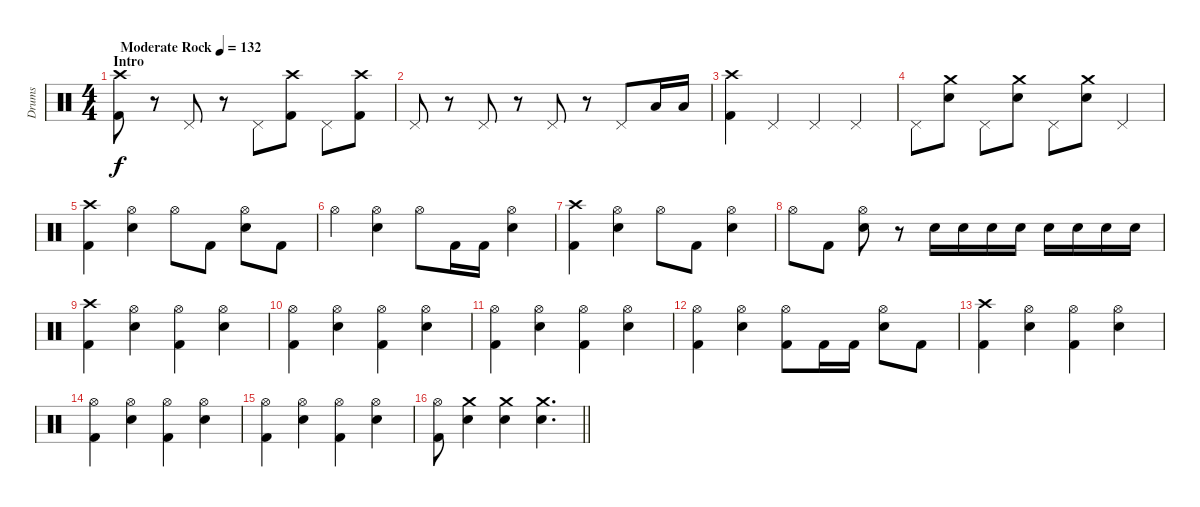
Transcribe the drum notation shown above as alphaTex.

\track ("Drums" "Drums") {instrument percussion}
\staff {score}
\articulation defaults
\ts (4 4)
\section ("" "Intro")
\tempo (132 "Moderate Rock")
\clef neutral
\ks c
("Crash high (hit)" "Kick (hit) 2").8{dy f} r.8 "Pedal Hi-Hat (hit)".8 r.8 "Pedal Hi-Hat (hit)".8 ("Crash high (hit)" "Kick (hit) 2").8 "Pedal Hi-Hat (hit)".8 ("Crash high (hit)" "Kick (hit) 2").8 |
"Pedal Hi-Hat (hit)".8 r.8 "Pedal Hi-Hat (hit)".8 r.8 "Pedal Hi-Hat (hit)".8 r.8 "Pedal Hi-Hat (hit)".8 "Low Tom (hit)".16 "Low Tom (hit)".16 |
("Crash high (hit)" "Kick (hit) 2").4 "Pedal Hi-Hat (hit)".4 "Pedal Hi-Hat (hit)".4 "Pedal Hi-Hat (hit)".4 |
"Pedal Hi-Hat (hit)".8 ("Crash medium (hit)" "Snare (hit) 2").8 "Pedal Hi-Hat (hit)".8 ("Crash medium (hit)" "Snare (hit) 2").8 "Pedal Hi-Hat (hit)".8 ("Crash medium (hit)" "Snare (hit) 2").8 "Pedal Hi-Hat (hit)".4 |
("Crash high (hit)" "Kick (hit) 2").4 ("Hi-Hat (open)" "Snare (hit) 2").4 "Hi-Hat (open)".8 "Kick (hit) 2".8 ("Hi-Hat (open)" "Snare (hit) 2").8 "Kick (hit) 2".8 |
"Hi-Hat (open)".4 ("Hi-Hat (open)" "Snare (hit) 2").4 "Hi-Hat (open)".8 "Kick (hit) 2".16 "Kick (hit) 2".16 ("Hi-Hat (open)" "Snare (hit) 2").4 |
("Crash high (hit)" "Kick (hit) 2").4 ("Hi-Hat (open)" "Snare (hit) 2").4 "Hi-Hat (open)".8 "Kick (hit) 2".8 ("Hi-Hat (open)" "Snare (hit) 2").4 |
"Hi-Hat (open)".8 "Kick (hit) 2".8 ("Hi-Hat (open)" "Snare (hit) 2").8 r.8 "Snare (hit) 2".16 "Snare (hit) 2".16 "Snare (hit) 2".16 "Snare (hit) 2".16 "Snare (hit) 2".16 "Snare (hit) 2".16 "Snare (hit) 2".16 "Snare (hit) 2".16 |
("Crash high (hit)" "Kick (hit) 2").4 ("Hi-Hat (open)" "Snare (hit) 2").4 ("Hi-Hat (open)" "Kick (hit) 2").4 ("Hi-Hat (open)" "Snare (hit) 2").4 |
("Hi-Hat (open)" "Kick (hit) 2").4 ("Hi-Hat (open)" "Snare (hit) 2").4 ("Hi-Hat (open)" "Kick (hit) 2").4 ("Hi-Hat (open)" "Snare (hit) 2").4 |
("Hi-Hat (open)" "Kick (hit) 2").4 ("Hi-Hat (open)" "Snare (hit) 2").4 ("Hi-Hat (open)" "Kick (hit) 2").4 ("Hi-Hat (open)" "Snare (hit) 2").4 |
("Hi-Hat (open)" "Kick (hit) 2").4 ("Hi-Hat (open)" "Snare (hit) 2").4 ("Hi-Hat (open)" "Kick (hit) 2").8 "Kick (hit) 2".16 "Kick (hit) 2".16 ("Hi-Hat (open)" "Snare (hit) 2").8 "Kick (hit) 2".8 |
("Crash high (hit)" "Kick (hit) 2").4 ("Hi-Hat (open)" "Snare (hit) 2").4 ("Hi-Hat (open)" "Kick (hit) 2").4 ("Hi-Hat (open)" "Snare (hit) 2").4 |
("Hi-Hat (open)" "Kick (hit) 2").4 ("Hi-Hat (open)" "Snare (hit) 2").4 ("Hi-Hat (open)" "Kick (hit) 2").4 ("Hi-Hat (open)" "Snare (hit) 2").4 |
("Hi-Hat (open)" "Kick (hit) 2").4 ("Hi-Hat (open)" "Snare (hit) 2").4 ("Hi-Hat (open)" "Kick (hit) 2").4 ("Hi-Hat (open)" "Snare (hit) 2").4 |
\barLineRight lightlight
("Hi-Hat (open)" "Kick (hit) 2").8 ("Crash medium (hit)" "Snare (hit) 2").4 ("Crash medium (hit)" "Snare (hit) 2").4 ("Crash medium (hit)" "Snare (hit) 2").4{d}
